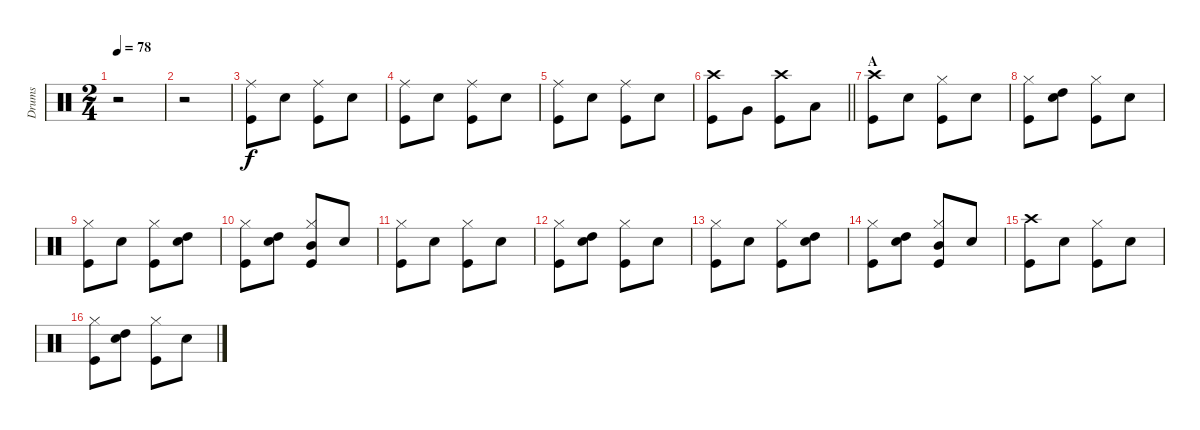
\track ("Drums" "Drums") {instrument percussion}
\staff {score}
\articulation defaults
\ts (2 4)
\tempo 78
\clef neutral
\ks c
r.2{dy f} |
r.2 |
("Ride (middle)" "Kick (hit)").8 "Electric Snare (hit)".8 ("Ride (middle)" "Kick (hit)").8 "Electric Snare (hit)".8 |
("Ride (middle)" "Kick (hit)").8 "Electric Snare (hit)".8 ("Ride (middle)" "Kick (hit)").8 "Electric Snare (hit)".8 |
("Ride (middle)" "Kick (hit)").8 "Electric Snare (hit)".8 ("Ride (middle)" "Kick (hit)").8 "Electric Snare (hit)".8 |
\barLineRight lightlight
("Crash high (hit)" "Kick (hit)").8 "Very Low Tom (hit)".8 ("Crash high (hit)" "Kick (hit)").8 "Low Tom (hit)".8 |
\section ("" "A")
("Crash high (hit)" "Kick (hit)").8 "Electric Snare (hit)".8 ("Hi-Hat (closed)" "Kick (hit)").8 "Electric Snare (hit)".8 |
("Hi-Hat (closed)" "Kick (hit)").8 ("High Tom (hit)" "Electric Snare (hit)").8 ("Hi-Hat (closed)" "Kick (hit)").8 "Electric Snare (hit)".8 |
("Hi-Hat (closed)" "Kick (hit)").8 "Electric Snare (hit)".8 ("Hi-Hat (closed)" "Kick (hit)").8 ("High Tom (hit)" "Electric Snare (hit)").8 |
("Hi-Hat (closed)" "Kick (hit)").8 ("High Tom (hit)" "Electric Snare (hit)").8 ("Hi-Hat (closed)" "Mid Tom (hit)" "Kick (hit)").8 "Electric Snare (hit)".8 |
("Hi-Hat (closed)" "Kick (hit)").8 "Electric Snare (hit)".8 ("Hi-Hat (closed)" "Kick (hit)").8 "Electric Snare (hit)".8 |
("Hi-Hat (closed)" "Kick (hit)").8 ("High Tom (hit)" "Electric Snare (hit)").8 ("Hi-Hat (closed)" "Kick (hit)").8 "Electric Snare (hit)".8 |
("Hi-Hat (closed)" "Kick (hit)").8 "Electric Snare (hit)".8 ("Hi-Hat (closed)" "Kick (hit)").8 ("High Tom (hit)" "Electric Snare (hit)").8 |
("Hi-Hat (closed)" "Kick (hit)").8 ("High Tom (hit)" "Electric Snare (hit)").8 ("Hi-Hat (closed)" "Mid Tom (hit)" "Kick (hit)").8 "Electric Snare (hit)".8 |
("Crash high (hit)" "Kick (hit)").8 "Electric Snare (hit)".8 ("Hi-Hat (closed)" "Kick (hit)").8 "Electric Snare (hit)".8 |
("Hi-Hat (closed)" "Kick (hit)").8 ("High Tom (hit)" "Electric Snare (hit)").8 ("Hi-Hat (closed)" "Kick (hit)").8 "Electric Snare (hit)".8
